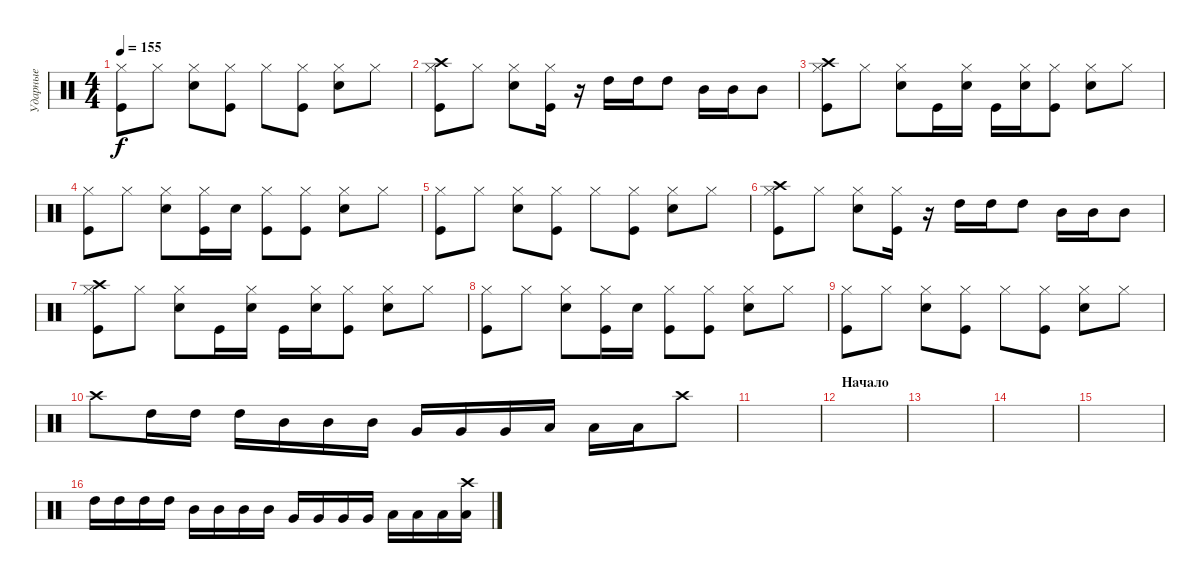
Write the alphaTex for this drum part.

\track ("Ударные" "Ударные") {instrument percussion}
\staff {score}
\articulation defaults
\ts (4 4)
\tempo 155
\clef neutral
\ks c
("Hi-Hat (closed)" "Kick (hit)").8{dy f} "Hi-Hat (closed)".8 ("Hi-Hat (closed)" "Snare (hit) 2").8 ("Hi-Hat (closed)" "Kick (hit)").8 "Hi-Hat (closed)".8 ("Hi-Hat (closed)" "Kick (hit)").8 ("Hi-Hat (closed)" "Snare (hit) 2").8 "Hi-Hat (closed)".8 |
("Crash high (hit)" "Hi-Hat (closed)" "Kick (hit)").8 "Hi-Hat (closed)".8 ("Hi-Hat (closed)" "Snare (hit) 2").8 ("Hi-Hat (closed)" "Kick (hit)").16 r.16 "High Tom (hit)".16 "High Tom (hit)".16 "High Tom (hit)".8 "Mid Tom (hit)".16 "Mid Tom (hit)".16 "Mid Tom (hit)".8 |
("Crash high (hit)" "Hi-Hat (closed)" "Kick (hit)").8 "Hi-Hat (closed)".8 ("Hi-Hat (closed)" "Snare (hit) 2").8 "Kick (hit)".16 ("Hi-Hat (closed)" "Snare (hit) 2").16 "Kick (hit)".16 ("Hi-Hat (closed)" "Snare (hit) 2").16 ("Hi-Hat (closed)" "Kick (hit)").8 ("Hi-Hat (closed)" "Snare (hit) 2").8 "Hi-Hat (closed)".8 |
("Hi-Hat (closed)" "Kick (hit)").8 "Hi-Hat (closed)".8 ("Hi-Hat (closed)" "Snare (hit) 2").8 ("Hi-Hat (closed)" "Kick (hit)").16 "Snare (hit) 2".16 ("Hi-Hat (closed)" "Kick (hit)").8 ("Hi-Hat (closed)" "Kick (hit)").8 ("Hi-Hat (closed)" "Snare (hit) 2").8 "Hi-Hat (closed)".8 |
("Hi-Hat (closed)" "Kick (hit)").8 "Hi-Hat (closed)".8 ("Hi-Hat (closed)" "Snare (hit) 2").8 ("Hi-Hat (closed)" "Kick (hit)").8 "Hi-Hat (closed)".8 ("Hi-Hat (closed)" "Kick (hit)").8 ("Hi-Hat (closed)" "Snare (hit) 2").8 "Hi-Hat (closed)".8 |
("Crash high (hit)" "Hi-Hat (closed)" "Kick (hit)").8 "Hi-Hat (closed)".8 ("Hi-Hat (closed)" "Snare (hit) 2").8 ("Hi-Hat (closed)" "Kick (hit)").16 r.16 "High Tom (hit)".16 "High Tom (hit)".16 "High Tom (hit)".8 "Mid Tom (hit)".16 "Mid Tom (hit)".16 "Mid Tom (hit)".8 |
("Crash high (hit)" "Hi-Hat (closed)" "Kick (hit)").8 "Hi-Hat (closed)".8 ("Hi-Hat (closed)" "Snare (hit) 2").8 "Kick (hit)".16 ("Hi-Hat (closed)" "Snare (hit) 2").16 "Kick (hit)".16 ("Hi-Hat (closed)" "Snare (hit) 2").16 ("Hi-Hat (closed)" "Kick (hit)").8 ("Hi-Hat (closed)" "Snare (hit) 2").8 "Hi-Hat (closed)".8 |
("Hi-Hat (closed)" "Kick (hit)").8 "Hi-Hat (closed)".8 ("Hi-Hat (closed)" "Snare (hit) 2").8 ("Hi-Hat (closed)" "Kick (hit)").16 "Snare (hit) 2".16 ("Hi-Hat (closed)" "Kick (hit)").8 ("Hi-Hat (closed)" "Kick (hit)").8 ("Hi-Hat (closed)" "Snare (hit) 2").8 "Hi-Hat (closed)".8 |
("Hi-Hat (closed)" "Kick (hit)").8 "Hi-Hat (closed)".8 ("Hi-Hat (closed)" "Snare (hit) 2").8 ("Hi-Hat (closed)" "Kick (hit)").8 "Hi-Hat (closed)".8 ("Hi-Hat (closed)" "Kick (hit)").8 ("Hi-Hat (closed)" "Snare (hit) 2").8 "Hi-Hat (closed)".8 |
"Crash high (hit)".8 "High Tom (hit)".16 "High Tom (hit)".16 "High Tom (hit)".16 "Mid Tom (hit)".16 "Mid Tom (hit)".16 "Mid Tom (hit)".16 "Very Low Tom (hit)".16 "Very Low Tom (hit)".16 "Very Low Tom (hit)".16 "Low Floor Tom (hit)".16 "Low Floor Tom (hit)".16 "Low Floor Tom (hit)".16 "Crash high (hit)".8 |
|
\section ("" "Начало")
|
|
|
|
"High Tom (hit)".16 "High Tom (hit)".16 "High Tom (hit)".16 "High Tom (hit)".16 "Mid Tom (hit)".16 "Mid Tom (hit)".16 "Mid Tom (hit)".16 "Mid Tom (hit)".16 "Very Low Tom (hit)".16 "Very Low Tom (hit)".16 "Very Low Tom (hit)".16 "Very Low Tom (hit)".16 "Low Floor Tom (hit)".16 "Low Floor Tom (hit)".16 "Low Floor Tom (hit)".16 ("Crash high (hit)" "Low Floor Tom (hit)").16
